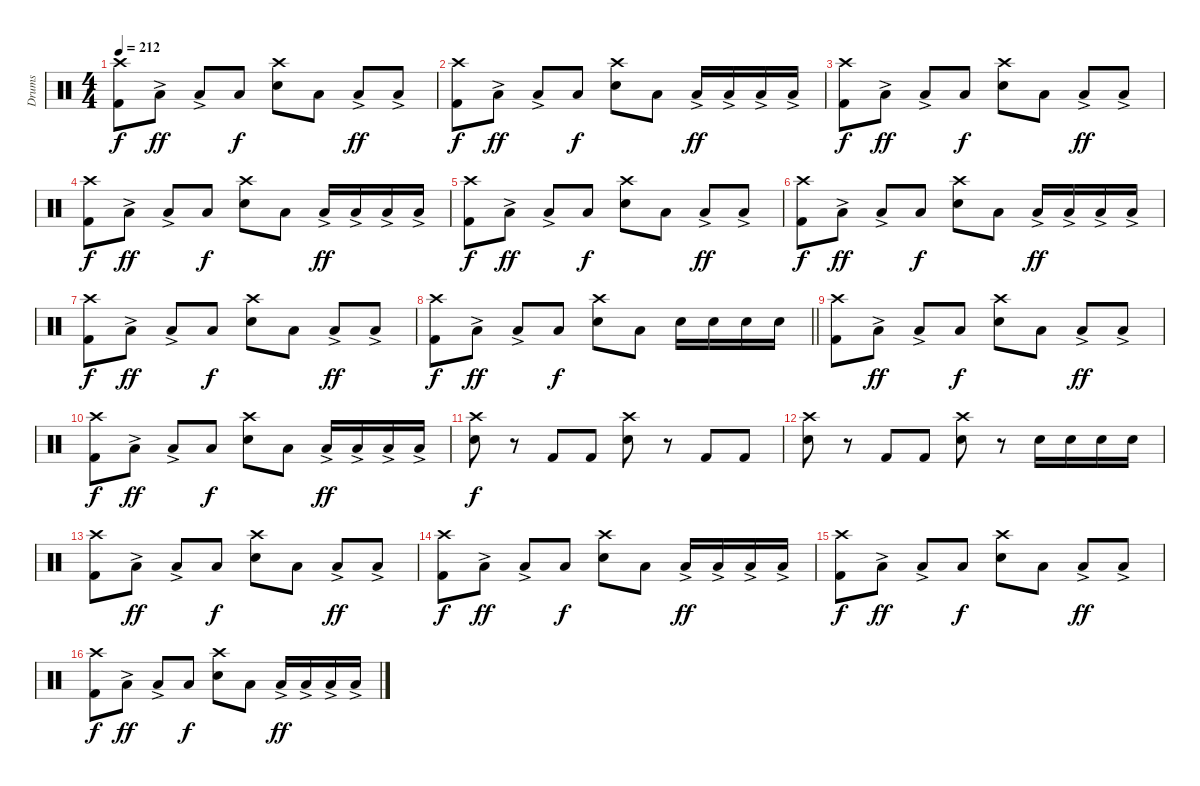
\track ("Drums" "Drums") {instrument percussion}
\staff {score}
\articulation defaults
\ts (4 4)
\tempo 212
\clef neutral
\ks c
("Crash high (hit)" "Kick (hit) 2").8{dy f} "Low Floor Tom (hit)"{ac}.8{dy ff} "Low Floor Tom (hit)"{ac}.8 "Low Floor Tom (hit)".8{dy f} ("Crash high (hit)" "Snare (hit) 2").8 "Low Floor Tom (hit)".8 "Low Floor Tom (hit)"{ac}.8{dy ff} "Low Floor Tom (hit)"{ac}.8 |
("Crash high (hit)" "Kick (hit) 2").8{dy f} "Low Floor Tom (hit)"{ac}.8{dy ff} "Low Floor Tom (hit)"{ac}.8 "Low Floor Tom (hit)".8{dy f} ("Crash high (hit)" "Snare (hit) 2").8 "Low Floor Tom (hit)".8 "Low Floor Tom (hit)"{ac}.16{dy ff} "Low Floor Tom (hit)"{ac}.16 "Low Floor Tom (hit)"{ac}.16 "Low Floor Tom (hit)"{ac}.16 |
("Crash high (hit)" "Kick (hit) 2").8{dy f} "Low Floor Tom (hit)"{ac}.8{dy ff} "Low Floor Tom (hit)"{ac}.8 "Low Floor Tom (hit)".8{dy f} ("Crash high (hit)" "Snare (hit) 2").8 "Low Floor Tom (hit)".8 "Low Floor Tom (hit)"{ac}.8{dy ff} "Low Floor Tom (hit)"{ac}.8 |
("Crash high (hit)" "Kick (hit) 2").8{dy f} "Low Floor Tom (hit)"{ac}.8{dy ff} "Low Floor Tom (hit)"{ac}.8 "Low Floor Tom (hit)".8{dy f} ("Crash high (hit)" "Snare (hit) 2").8 "Low Floor Tom (hit)".8 "Low Floor Tom (hit)"{ac}.16{dy ff} "Low Floor Tom (hit)"{ac}.16 "Low Floor Tom (hit)"{ac}.16 "Low Floor Tom (hit)"{ac}.16 |
("Crash high (hit)" "Kick (hit) 2").8{dy f} "Low Floor Tom (hit)"{ac}.8{dy ff} "Low Floor Tom (hit)"{ac}.8 "Low Floor Tom (hit)".8{dy f} ("Crash high (hit)" "Snare (hit) 2").8 "Low Floor Tom (hit)".8 "Low Floor Tom (hit)"{ac}.8{dy ff} "Low Floor Tom (hit)"{ac}.8 |
("Crash high (hit)" "Kick (hit) 2").8{dy f} "Low Floor Tom (hit)"{ac}.8{dy ff} "Low Floor Tom (hit)"{ac}.8 "Low Floor Tom (hit)".8{dy f} ("Crash high (hit)" "Snare (hit) 2").8 "Low Floor Tom (hit)".8 "Low Floor Tom (hit)"{ac}.16{dy ff} "Low Floor Tom (hit)"{ac}.16 "Low Floor Tom (hit)"{ac}.16 "Low Floor Tom (hit)"{ac}.16 |
("Crash high (hit)" "Kick (hit) 2").8{dy f} "Low Floor Tom (hit)"{ac}.8{dy ff} "Low Floor Tom (hit)"{ac}.8 "Low Floor Tom (hit)".8{dy f} ("Crash high (hit)" "Snare (hit) 2").8 "Low Floor Tom (hit)".8 "Low Floor Tom (hit)"{ac}.8{dy ff} "Low Floor Tom (hit)"{ac}.8 |
\barLineRight lightlight
("Crash high (hit)" "Kick (hit) 2").8{dy f} "Low Floor Tom (hit)"{ac}.8{dy ff} "Low Floor Tom (hit)"{ac}.8 "Low Floor Tom (hit)".8{dy f} ("Crash high (hit)" "Snare (hit) 2").8 "Low Floor Tom (hit)".8 "Snare (hit) 2".16 "Snare (hit) 2".16 "Snare (hit) 2".16 "Snare (hit) 2".16 |
("Crash high (hit)" "Kick (hit) 2").8 "Low Floor Tom (hit)"{ac}.8{dy ff} "Low Floor Tom (hit)"{ac}.8 "Low Floor Tom (hit)".8{dy f} ("Crash high (hit)" "Snare (hit) 2").8 "Low Floor Tom (hit)".8 "Low Floor Tom (hit)"{ac}.8{dy ff} "Low Floor Tom (hit)"{ac}.8 |
("Crash high (hit)" "Kick (hit) 2").8{dy f} "Low Floor Tom (hit)"{ac}.8{dy ff} "Low Floor Tom (hit)"{ac}.8 "Low Floor Tom (hit)".8{dy f} ("Crash high (hit)" "Snare (hit) 2").8 "Low Floor Tom (hit)".8 "Low Floor Tom (hit)"{ac}.16{dy ff} "Low Floor Tom (hit)"{ac}.16 "Low Floor Tom (hit)"{ac}.16 "Low Floor Tom (hit)"{ac}.16 |
("Crash high (hit)" "Snare (hit) 2").8{dy f} r.8 "Kick (hit) 2".8 "Kick (hit) 2".8 ("Crash high (hit)" "Snare (hit) 2").8 r.8 "Kick (hit) 2".8 "Kick (hit) 2".8 |
("Crash high (hit)" "Snare (hit) 2").8 r.8 "Kick (hit) 2".8 "Kick (hit) 2".8 ("Crash high (hit)" "Snare (hit) 2").8 r.8 "Snare (hit) 2".16 "Snare (hit) 2".16 "Snare (hit) 2".16 "Snare (hit) 2".16 |
("Crash high (hit)" "Kick (hit) 2").8 "Low Floor Tom (hit)"{ac}.8{dy ff} "Low Floor Tom (hit)"{ac}.8 "Low Floor Tom (hit)".8{dy f} ("Crash high (hit)" "Snare (hit) 2").8 "Low Floor Tom (hit)".8 "Low Floor Tom (hit)"{ac}.8{dy ff} "Low Floor Tom (hit)"{ac}.8 |
("Crash high (hit)" "Kick (hit) 2").8{dy f} "Low Floor Tom (hit)"{ac}.8{dy ff} "Low Floor Tom (hit)"{ac}.8 "Low Floor Tom (hit)".8{dy f} ("Crash high (hit)" "Snare (hit) 2").8 "Low Floor Tom (hit)".8 "Low Floor Tom (hit)"{ac}.16{dy ff} "Low Floor Tom (hit)"{ac}.16 "Low Floor Tom (hit)"{ac}.16 "Low Floor Tom (hit)"{ac}.16 |
("Crash high (hit)" "Kick (hit) 2").8{dy f} "Low Floor Tom (hit)"{ac}.8{dy ff} "Low Floor Tom (hit)"{ac}.8 "Low Floor Tom (hit)".8{dy f} ("Crash high (hit)" "Snare (hit) 2").8 "Low Floor Tom (hit)".8 "Low Floor Tom (hit)"{ac}.8{dy ff} "Low Floor Tom (hit)"{ac}.8 |
("Crash high (hit)" "Kick (hit) 2").8{dy f} "Low Floor Tom (hit)"{ac}.8{dy ff} "Low Floor Tom (hit)"{ac}.8 "Low Floor Tom (hit)".8{dy f} ("Crash high (hit)" "Snare (hit) 2").8 "Low Floor Tom (hit)".8 "Low Floor Tom (hit)"{ac}.16{dy ff} "Low Floor Tom (hit)"{ac}.16 "Low Floor Tom (hit)"{ac}.16 "Low Floor Tom (hit)"{ac}.16
